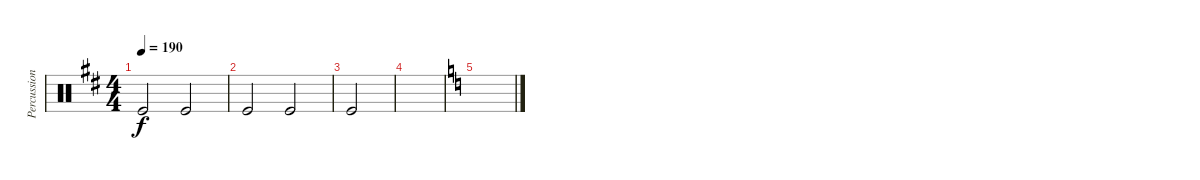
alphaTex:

\track ("Percussion" "Percussion") {instrument percussion}
\staff {score}
\articulation defaults
\ts (4 4)
\tempo 190
\clef neutral
\ks d "Kick (hit)".2{dy f} "Kick (hit)".2
|
"Kick (hit)".2 "Kick (hit)".2 |
"Kick (hit)".2 |
|
\ks c
